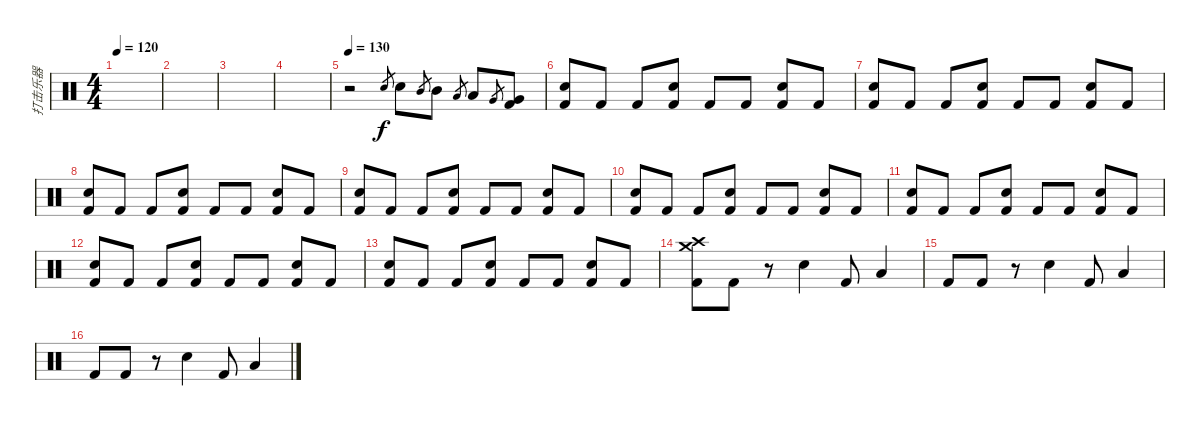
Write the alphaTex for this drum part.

\track ("打击乐器" "打击乐器") {instrument percussion}
\staff {score}
\articulation defaults
\ts (4 4)
\tempo 120
\clef neutral
\ks c
|
|
|
|
\tempo 130
r.2 "Snare (hit) 2".8{gr} "Snare (hit) 2".8 "Mid Tom (hit)".8{gr} "Mid Tom (hit)".8 "Low Tom (hit)".8{gr} "Low Tom (hit)".8 "Very Low Tom (hit)".8{gr} ("Very Low Tom (hit)" "Kick (hit) 2").8 |
("Snare (hit) 2" "Kick (hit) 2").8 "Kick (hit) 2".8 "Kick (hit) 2".8 ("Snare (hit) 2" "Kick (hit) 2").8 "Kick (hit) 2".8 "Kick (hit) 2".8 ("Snare (hit) 2" "Kick (hit) 2").8 "Kick (hit) 2".8 |
("Snare (hit) 2" "Kick (hit) 2").8 "Kick (hit) 2".8 "Kick (hit) 2".8 ("Snare (hit) 2" "Kick (hit) 2").8 "Kick (hit) 2".8 "Kick (hit) 2".8 ("Snare (hit) 2" "Kick (hit) 2").8 "Kick (hit) 2".8 |
("Snare (hit) 2" "Kick (hit) 2").8 "Kick (hit) 2".8 "Kick (hit) 2".8 ("Snare (hit) 2" "Kick (hit) 2").8 "Kick (hit) 2".8 "Kick (hit) 2".8 ("Snare (hit) 2" "Kick (hit) 2").8 "Kick (hit) 2".8 |
("Snare (hit) 2" "Kick (hit) 2").8 "Kick (hit) 2".8 "Kick (hit) 2".8 ("Snare (hit) 2" "Kick (hit) 2").8 "Kick (hit) 2".8 "Kick (hit) 2".8 ("Snare (hit) 2" "Kick (hit) 2").8 "Kick (hit) 2".8 |
("Snare (hit) 2" "Kick (hit) 2").8 "Kick (hit) 2".8 "Kick (hit) 2".8 ("Snare (hit) 2" "Kick (hit) 2").8 "Kick (hit) 2".8 "Kick (hit) 2".8 ("Snare (hit) 2" "Kick (hit) 2").8 "Kick (hit) 2".8 |
("Snare (hit) 2" "Kick (hit) 2").8 "Kick (hit) 2".8 "Kick (hit) 2".8 ("Snare (hit) 2" "Kick (hit) 2").8 "Kick (hit) 2".8 "Kick (hit) 2".8 ("Snare (hit) 2" "Kick (hit) 2").8 "Kick (hit) 2".8 |
("Snare (hit) 2" "Kick (hit) 2").8 "Kick (hit) 2".8 "Kick (hit) 2".8 ("Snare (hit) 2" "Kick (hit) 2").8 "Kick (hit) 2".8 "Kick (hit) 2".8 ("Snare (hit) 2" "Kick (hit) 2").8 "Kick (hit) 2".8 |
("Snare (hit) 2" "Kick (hit) 2").8 "Kick (hit) 2".8 "Kick (hit) 2".8 ("Snare (hit) 2" "Kick (hit) 2").8 "Kick (hit) 2".8 "Kick (hit) 2".8 ("Snare (hit) 2" "Kick (hit) 2").8 "Kick (hit) 2".8 |
("Crash high (hit)" "Crash medium (hit)" "Kick (hit) 2").8 "Kick (hit) 2".8 r.8 "Snare (hit) 2".4 "Kick (hit) 2".8 "Low Floor Tom (hit)".4 |
"Kick (hit) 2".8 "Kick (hit) 2".8 r.8 "Snare (hit) 2".4 "Kick (hit) 2".8 "Low Floor Tom (hit)".4 |
"Kick (hit) 2".8 "Kick (hit) 2".8 r.8 "Snare (hit) 2".4 "Kick (hit) 2".8 "Low Floor Tom (hit)".4
